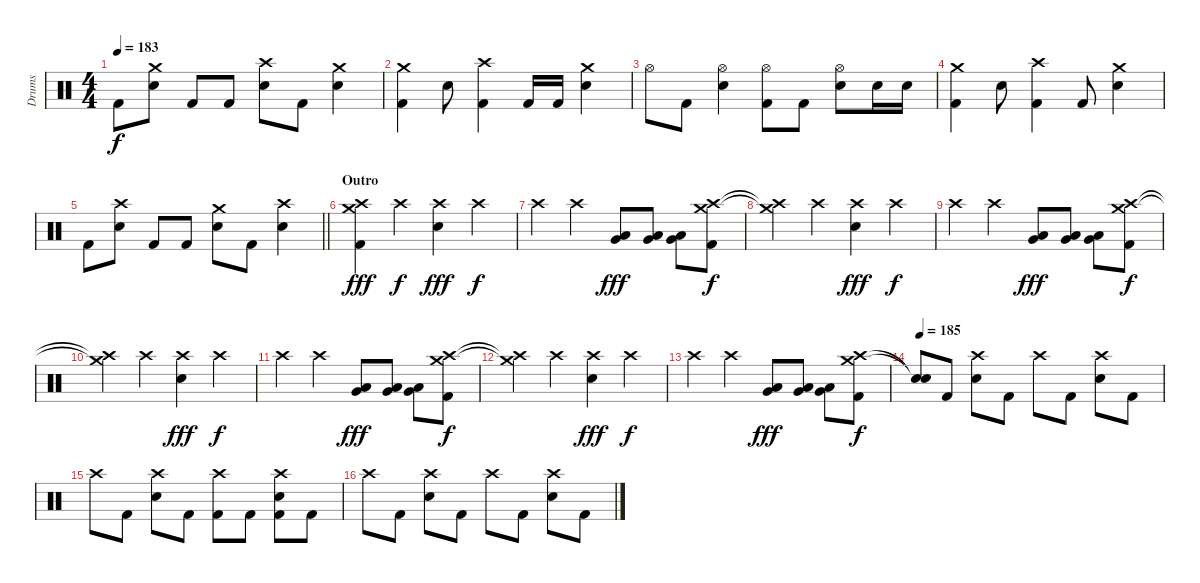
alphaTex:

\track ("Drums" "Drums") {instrument percussion}
\staff {score}
\articulation defaults
\ts (4 4)
\tempo 183
\clef neutral
\ks c "Kick (hit) 2".8{dy f}
("Crash medium (hit)" "Electric Snare (hit)").8 "Kick (hit) 2".8 "Kick (hit) 2".8 ("Crash high (hit)" "Electric Snare (hit)").8 "Kick (hit) 2".8 ("Crash medium (hit)" "Electric Snare (hit)").4 |
("Crash medium (hit)" "Kick (hit) 2").4 "Electric Snare (hit)".8 ("Crash high (hit)" "Kick (hit) 2").4 "Kick (hit) 2".16 "Kick (hit) 2".16 ("Crash medium (hit)" "Electric Snare (hit)").4 |
"Hi-Hat (open)".8 "Kick (hit) 2".8 ("Hi-Hat (open)" "Electric Snare (hit)").4 ("Hi-Hat (open)" "Kick (hit) 2").8 "Kick (hit) 2".8 ("Hi-Hat (open)" "Electric Snare (hit)").8 "Electric Snare (hit)".16 "Electric Snare (hit)".16 |
("Crash medium (hit)" "Kick (hit) 2").4 "Electric Snare (hit)".8 ("Crash high (hit)" "Kick (hit) 2").4 "Kick (hit) 2".8 ("Crash medium (hit)" "Electric Snare (hit)").4 |
\barLineRight lightlight "Kick (hit) 2".8
("Crash high (hit)" "Electric Snare (hit)").8 "Kick (hit) 2".8 "Kick (hit) 2".8 ("Crash medium (hit)" "Electric Snare (hit)").8 "Kick (hit) 2".8 ("Crash high (hit)" "Electric Snare (hit)").4 |
\section ("" "Outro")
("Crash medium (hit)" "Crash high (hit)" "Kick (hit) 2").4{dy fff} "Crash high (hit)".4{dy f} ("Crash high (hit)" "Electric Snare (hit)").4{dy fff} "Crash high (hit)".4{dy f} |
"Crash high (hit)".4 "Crash high (hit)".4 ("Very Low Tom (hit)" "Low Floor Tom (hit)").8{dy fff} ("Very Low Tom (hit)" "Low Floor Tom (hit)").8 ("Very Low Tom (hit)" "Low Floor Tom (hit)").8 ("Crash medium (hit)" "Crash high (hit)" "Kick (hit) 2").8{dy f} |
("Crash medium (hit)"{t} "Crash high (hit)"{t}).4 "Crash high (hit)".4 ("Crash high (hit)" "Electric Snare (hit)").4{dy fff} "Crash high (hit)".4{dy f} |
"Crash high (hit)".4 "Crash high (hit)".4 ("Very Low Tom (hit)" "Low Floor Tom (hit)").8{dy fff} ("Very Low Tom (hit)" "Low Floor Tom (hit)").8 ("Very Low Tom (hit)" "Low Floor Tom (hit)").8 ("Crash medium (hit)" "Crash high (hit)" "Kick (hit) 2").8{dy f} |
("Crash medium (hit)"{t} "Crash high (hit)"{t}).4 "Crash high (hit)".4 ("Crash high (hit)" "Electric Snare (hit)").4{dy fff} "Crash high (hit)".4{dy f} |
"Crash high (hit)".4 "Crash high (hit)".4 ("Very Low Tom (hit)" "Low Floor Tom (hit)").8{dy fff} ("Very Low Tom (hit)" "Low Floor Tom (hit)").8 ("Very Low Tom (hit)" "Low Floor Tom (hit)").8 ("Crash medium (hit)" "Crash high (hit)" "Kick (hit) 2").8{dy f} |
("Crash medium (hit)"{t} "Crash high (hit)"{t}).4 "Crash high (hit)".4 ("Crash high (hit)" "Electric Snare (hit)").4{dy fff} "Crash high (hit)".4{dy f} |
"Crash high (hit)".4 "Crash high (hit)".4 ("Very Low Tom (hit)" "Low Floor Tom (hit)").8{dy fff} ("Very Low Tom (hit)" "Low Floor Tom (hit)").8 ("Very Low Tom (hit)" "Low Floor Tom (hit)").8 ("Crash medium (hit)" "Crash high (hit)" "Kick (hit) 2").8{dy f} |
\tempo 185
("Snare (hit)"{t} "Snare (hit)"{t}).8 "Kick (hit) 2".8 ("Crash high (hit)" "Electric Snare (hit)").8 "Kick (hit) 2".8 "Crash high (hit)".8 "Kick (hit) 2".8 ("Crash high (hit)" "Electric Snare (hit)").8 "Kick (hit) 2".8 |
"Crash high (hit)".8 "Kick (hit) 2".8 ("Crash high (hit)" "Electric Snare (hit)").8 "Kick (hit) 2".8 ("Crash high (hit)" "Kick (hit) 2").8 "Kick (hit) 2".8 ("Crash high (hit)" "Electric Snare (hit)" "Kick (hit) 2").8 "Kick (hit) 2".8 |
"Crash high (hit)".8 "Kick (hit) 2".8 ("Crash high (hit)" "Electric Snare (hit)").8 "Kick (hit) 2".8 "Crash high (hit)".8 "Kick (hit) 2".8 ("Crash high (hit)" "Electric Snare (hit)").8 "Kick (hit) 2".8
